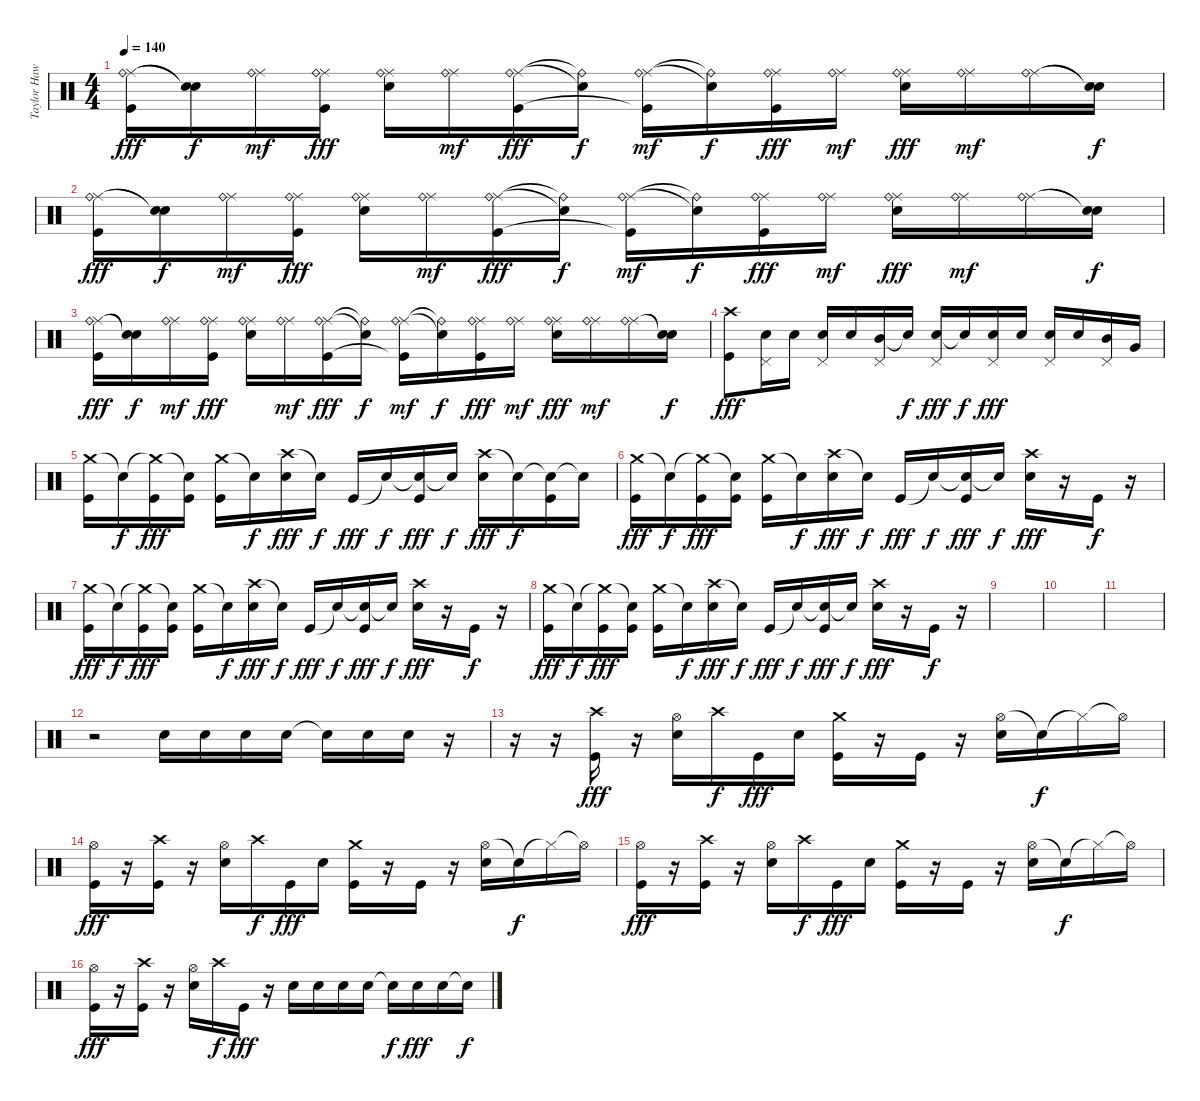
\track ("Taylor Hawkings (Batería)" "Taylor Haw") {instrument percussion}
\staff {score}
\articulation defaults
\ts (4 4)
\tempo 140
\clef neutral
\ks c
("Ride (middle)" "Ride (bell)" "Kick (hit)").16{dy fff} ("Snare (hit)"{t} "Snare (hit)"{t}).16{dy f} ("Ride (middle)" "Ride (bell)").16{dy mf} ("Ride (middle)" "Ride (bell)" "Kick (hit)").16{dy fff} ("Ride (middle)" "Ride (bell)" "Electric Snare (hit)").16 ("Ride (middle)" "Ride (bell)").16{dy mf} ("Ride (middle)" "Ride (bell)" "Kick (hit)").16{dy fff} ("Snare (hit)"{t} "Ride (bell)"{t}).16{dy f} ("Ride (middle)" "Ride (bell)" "Kick (hit)"{t}).16{dy mf} ("Snare (hit)"{t} "Ride (bell)"{t}).16{dy f} ("Ride (middle)" "Ride (bell)" "Kick (hit)").16{dy fff} ("Ride (middle)" "Ride (bell)").16{dy mf} ("Ride (middle)" "Ride (bell)" "Electric Snare (hit)").16{dy fff} ("Ride (middle)" "Ride (bell)").16{dy mf} ("Ride (middle)" "Ride (bell)").16 ("Snare (hit)"{t} "Snare (hit)"{t}).16{dy f} |
("Ride (middle)" "Ride (bell)" "Kick (hit)").16{dy fff} ("Snare (hit)"{t} "Snare (hit)"{t}).16{dy f} ("Ride (middle)" "Ride (bell)").16{dy mf} ("Ride (middle)" "Ride (bell)" "Kick (hit)").16{dy fff} ("Ride (middle)" "Ride (bell)" "Electric Snare (hit)").16 ("Ride (middle)" "Ride (bell)").16{dy mf} ("Ride (middle)" "Ride (bell)" "Kick (hit)").16{dy fff} ("Snare (hit)"{t} "Ride (bell)"{t}).16{dy f} ("Ride (middle)" "Ride (bell)" "Kick (hit)"{t}).16{dy mf} ("Snare (hit)"{t} "Ride (bell)"{t}).16{dy f} ("Ride (middle)" "Ride (bell)" "Kick (hit)").16{dy fff} ("Ride (middle)" "Ride (bell)").16{dy mf} ("Ride (middle)" "Ride (bell)" "Electric Snare (hit)").16{dy fff} ("Ride (middle)" "Ride (bell)").16{dy mf} ("Ride (middle)" "Ride (bell)").16 ("Snare (hit)"{t} "Snare (hit)"{t}).16{dy f} |
("Ride (middle)" "Ride (bell)" "Kick (hit)").16{dy fff} ("Snare (hit)"{t} "Snare (hit)"{t}).16{dy f} ("Ride (middle)" "Ride (bell)").16{dy mf} ("Ride (middle)" "Ride (bell)" "Kick (hit)").16{dy fff} ("Ride (middle)" "Ride (bell)" "Electric Snare (hit)").16 ("Ride (middle)" "Ride (bell)").16{dy mf} ("Ride (middle)" "Ride (bell)" "Kick (hit)").16{dy fff} ("Snare (hit)"{t} "Ride (bell)"{t}).16{dy f} ("Ride (middle)" "Ride (bell)" "Kick (hit)"{t}).16{dy mf} ("Snare (hit)"{t} "Ride (bell)"{t}).16{dy f} ("Ride (middle)" "Ride (bell)" "Kick (hit)").16{dy fff} ("Ride (middle)" "Ride (bell)").16{dy mf} ("Ride (middle)" "Ride (bell)" "Electric Snare (hit)").16{dy fff} ("Ride (middle)" "Ride (bell)").16{dy mf} ("Ride (middle)" "Ride (bell)").16 ("Snare (hit)"{t} "Snare (hit)"{t}).16{dy f} |
("Crash high (hit)" "Kick (hit)").8{dy fff} ("Electric Snare (hit)" "Pedal Hi-Hat (hit)").16 "Electric Snare (hit)".16 ("Electric Snare (hit)" "Pedal Hi-Hat (hit)").16 "Electric Snare (hit)".16 ("Mid Tom (hit)" "Pedal Hi-Hat (hit)").16 "Snare (hit)"{t}.16{dy f} ("Electric Snare (hit)" "Pedal Hi-Hat (hit)").16{dy fff} "Snare (hit)"{t}.16{dy f} ("Electric Snare (hit)" "Pedal Hi-Hat (hit)").16{dy fff} "Electric Snare (hit)".16 ("Electric Snare (hit)" "Pedal Hi-Hat (hit)").16 "Electric Snare (hit)".16 ("Mid Tom (hit)" "Pedal Hi-Hat (hit)").16 "Very Low Tom (hit)".16 |
("Crash medium (hit)" "Kick (hit)").16 "Snare (hit)"{t}.16{dy f} ("Crash medium (hit)"{t} "Kick (hit)").16{dy fff} ("Snare (hit)"{t} "Kick (hit)").16 ("Crash medium (hit)" "Kick (hit)").16 "Snare (hit)"{t}.16{dy f} ("Crash high (hit)" "Electric Snare (hit)").16{dy fff} "Snare (hit)"{t}.16{dy f} "Kick (hit)".16{dy fff} "Snare (hit)"{t}.16{dy f} ("Snare (hit)"{t} "Kick (hit)").16{dy fff} "Snare (hit)"{t}.16{dy f} ("Crash high (hit)" "Electric Snare (hit)").16{dy fff} "Snare (hit)"{t}.16{dy f} ("Snare (hit)"{t} "Kick (hit)").16 "Snare (hit)"{t}.16 |
("Crash medium (hit)" "Kick (hit)").16{dy fff} "Snare (hit)"{t}.16{dy f} ("Crash medium (hit)"{t} "Kick (hit)").16{dy fff} ("Snare (hit)"{t} "Kick (hit)").16 ("Crash medium (hit)" "Kick (hit)").16 "Snare (hit)"{t}.16{dy f} ("Crash high (hit)" "Electric Snare (hit)").16{dy fff} "Snare (hit)"{t}.16{dy f} "Kick (hit)".16{dy fff} "Snare (hit)"{t}.16{dy f} ("Snare (hit)"{t} "Kick (hit)").16{dy fff} "Snare (hit)"{t}.16{dy f} ("Crash high (hit)" "Electric Snare (hit)").16{dy fff} r.16 "Kick (hit)".16{dy f} r.16 |
("Crash medium (hit)" "Kick (hit)").16{dy fff} "Snare (hit)"{t}.16{dy f} ("Crash medium (hit)"{t} "Kick (hit)").16{dy fff} ("Snare (hit)"{t} "Kick (hit)").16 ("Crash medium (hit)" "Kick (hit)").16 "Snare (hit)"{t}.16{dy f} ("Crash high (hit)" "Electric Snare (hit)").16{dy fff} "Snare (hit)"{t}.16{dy f} "Kick (hit)".16{dy fff} "Snare (hit)"{t}.16{dy f} ("Snare (hit)"{t} "Kick (hit)").16{dy fff} "Snare (hit)"{t}.16{dy f} ("Crash high (hit)" "Electric Snare (hit)").16{dy fff} r.16 "Kick (hit)".16{dy f} r.16 |
("Crash medium (hit)" "Kick (hit)").16{dy fff} "Snare (hit)"{t}.16{dy f} ("Crash medium (hit)"{t} "Kick (hit)").16{dy fff} ("Snare (hit)"{t} "Kick (hit)").16 ("Crash medium (hit)" "Kick (hit)").16 "Snare (hit)"{t}.16{dy f} ("Crash high (hit)" "Electric Snare (hit)").16{dy fff} "Snare (hit)"{t}.16{dy f} "Kick (hit)".16{dy fff} "Snare (hit)"{t}.16{dy f} ("Snare (hit)"{t} "Kick (hit)").16{dy fff} "Snare (hit)"{t}.16{dy f} ("Crash high (hit)" "Electric Snare (hit)").16{dy fff} r.16 "Kick (hit)".16{dy f} r.16 |
|
|
|
r.2 "Electric Snare (hit)".16 "Electric Snare (hit)".16 "Electric Snare (hit)".16 "Electric Snare (hit)".16 "Snare (hit)"{t}.16 "Electric Snare (hit)".16 "Electric Snare (hit)".16 r.16 |
r.16 r.16 ("Crash high (hit)" "Kick (hit)").16{dy fff} r.16 ("Hi-Hat (open)" "Electric Snare (hit)").16 "Crash high (hit)".16{dy f} "Kick (hit)".16{dy fff} "Electric Snare (hit)".16 ("Crash medium (hit)" "Kick (hit)").16 r.16 "Kick (hit)".16 r.16 ("Hi-Hat (open)" "Electric Snare (hit)").16 "Snare (hit)"{t}.16{dy f} "Hi-Hat (closed)"{t}.16 "Hi-Hat (open)"{t}.16 |
("Hi-Hat (open)" "Kick (hit)").16{dy fff} r.16 ("Crash high (hit)" "Kick (hit)").16 r.16 ("Hi-Hat (open)" "Electric Snare (hit)").16 "Crash high (hit)".16{dy f} "Kick (hit)".16{dy fff} "Electric Snare (hit)".16 ("Crash medium (hit)" "Kick (hit)").16 r.16 "Kick (hit)".16 r.16 ("Hi-Hat (open)" "Electric Snare (hit)").16 "Snare (hit)"{t}.16{dy f} "Hi-Hat (closed)"{t}.16 "Hi-Hat (open)"{t}.16 |
("Hi-Hat (open)" "Kick (hit)").16{dy fff} r.16 ("Crash high (hit)" "Kick (hit)").16 r.16 ("Hi-Hat (open)" "Electric Snare (hit)").16 "Crash high (hit)".16{dy f} "Kick (hit)".16{dy fff} "Electric Snare (hit)".16 ("Crash medium (hit)" "Kick (hit)").16 r.16 "Kick (hit)".16 r.16 ("Hi-Hat (open)" "Electric Snare (hit)").16 "Snare (hit)"{t}.16{dy f} "Hi-Hat (closed)"{t}.16 "Hi-Hat (open)"{t}.16 |
("Hi-Hat (open)" "Kick (hit)").16{dy fff} r.16 ("Crash high (hit)" "Kick (hit)").16 r.16 ("Hi-Hat (open)" "Electric Snare (hit)").16 "Crash high (hit)".16{dy f} "Kick (hit)".16{dy fff} r.16 "Electric Snare (hit)".16 "Electric Snare (hit)".16 "Electric Snare (hit)".16 "Electric Snare (hit)".16 "Snare (hit)"{t}.16{dy f} "Electric Snare (hit)".16{dy fff} "Electric Snare (hit)".16 "Electric Snare (hit)"{t}.16{dy f}
